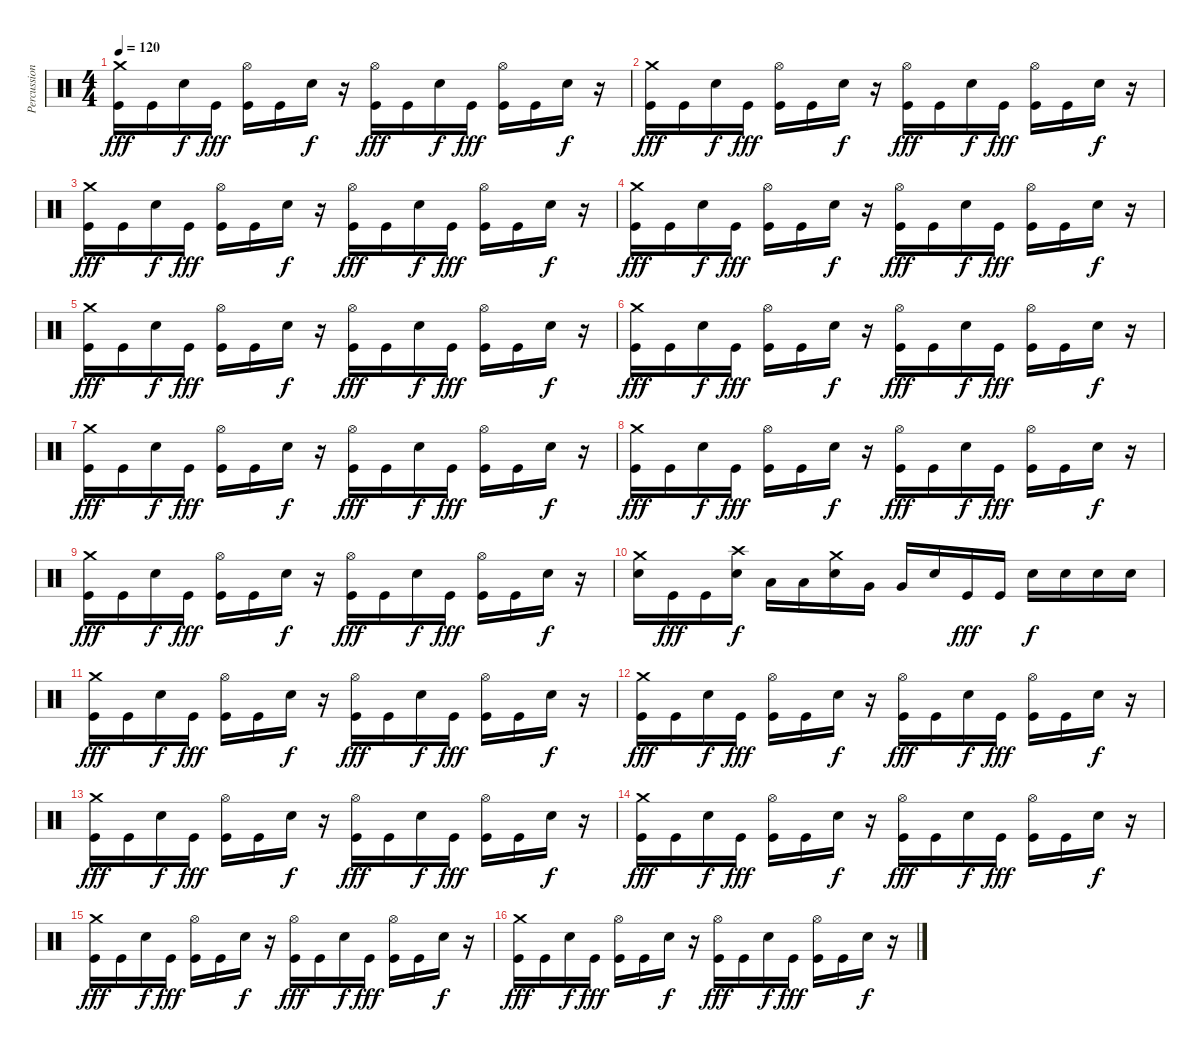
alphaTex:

\track ("Percussion" "Percussion") {instrument percussion}
\staff {score}
\articulation defaults
\ts (4 4)
\tempo 120
\clef neutral
\ks c
("Crash medium (hit)" "Kick (hit)").16{dy fff} "Kick (hit)".16 "Electric Snare (hit)".16{dy f} "Kick (hit)".16{dy fff} ("Hi-Hat (open)" "Kick (hit)").16 "Kick (hit)".16 "Electric Snare (hit)".16{dy f} r.16 ("Hi-Hat (open)" "Kick (hit)").16{dy fff} "Kick (hit)".16 "Electric Snare (hit)".16{dy f} "Kick (hit)".16{dy fff} ("Hi-Hat (open)" "Kick (hit)").16 "Kick (hit)".16 "Electric Snare (hit)".16{dy f} r.16 |
("Crash medium (hit)" "Kick (hit)").16{dy fff} "Kick (hit)".16 "Electric Snare (hit)".16{dy f} "Kick (hit)".16{dy fff} ("Hi-Hat (open)" "Kick (hit)").16 "Kick (hit)".16 "Electric Snare (hit)".16{dy f} r.16 ("Hi-Hat (open)" "Kick (hit)").16{dy fff} "Kick (hit)".16 "Electric Snare (hit)".16{dy f} "Kick (hit)".16{dy fff} ("Hi-Hat (open)" "Kick (hit)").16 "Kick (hit)".16 "Electric Snare (hit)".16{dy f} r.16 |
("Crash medium (hit)" "Kick (hit)").16{dy fff} "Kick (hit)".16 "Electric Snare (hit)".16{dy f} "Kick (hit)".16{dy fff} ("Hi-Hat (open)" "Kick (hit)").16 "Kick (hit)".16 "Electric Snare (hit)".16{dy f} r.16 ("Hi-Hat (open)" "Kick (hit)").16{dy fff} "Kick (hit)".16 "Electric Snare (hit)".16{dy f} "Kick (hit)".16{dy fff} ("Hi-Hat (open)" "Kick (hit)").16 "Kick (hit)".16 "Electric Snare (hit)".16{dy f} r.16 |
("Crash medium (hit)" "Kick (hit)").16{dy fff} "Kick (hit)".16 "Electric Snare (hit)".16{dy f} "Kick (hit)".16{dy fff} ("Hi-Hat (open)" "Kick (hit)").16 "Kick (hit)".16 "Electric Snare (hit)".16{dy f} r.16 ("Hi-Hat (open)" "Kick (hit)").16{dy fff} "Kick (hit)".16 "Electric Snare (hit)".16{dy f} "Kick (hit)".16{dy fff} ("Hi-Hat (open)" "Kick (hit)").16 "Kick (hit)".16 "Electric Snare (hit)".16{dy f} r.16 |
("Crash medium (hit)" "Kick (hit)").16{dy fff} "Kick (hit)".16 "Electric Snare (hit)".16{dy f} "Kick (hit)".16{dy fff} ("Hi-Hat (open)" "Kick (hit)").16 "Kick (hit)".16 "Electric Snare (hit)".16{dy f} r.16 ("Hi-Hat (open)" "Kick (hit)").16{dy fff} "Kick (hit)".16 "Electric Snare (hit)".16{dy f} "Kick (hit)".16{dy fff} ("Hi-Hat (open)" "Kick (hit)").16 "Kick (hit)".16 "Electric Snare (hit)".16{dy f} r.16 |
("Crash medium (hit)" "Kick (hit)").16{dy fff} "Kick (hit)".16 "Electric Snare (hit)".16{dy f} "Kick (hit)".16{dy fff} ("Hi-Hat (open)" "Kick (hit)").16 "Kick (hit)".16 "Electric Snare (hit)".16{dy f} r.16 ("Hi-Hat (open)" "Kick (hit)").16{dy fff} "Kick (hit)".16 "Electric Snare (hit)".16{dy f} "Kick (hit)".16{dy fff} ("Hi-Hat (open)" "Kick (hit)").16 "Kick (hit)".16 "Electric Snare (hit)".16{dy f} r.16 |
("Crash medium (hit)" "Kick (hit)").16{dy fff} "Kick (hit)".16 "Electric Snare (hit)".16{dy f} "Kick (hit)".16{dy fff} ("Hi-Hat (open)" "Kick (hit)").16 "Kick (hit)".16 "Electric Snare (hit)".16{dy f} r.16 ("Hi-Hat (open)" "Kick (hit)").16{dy fff} "Kick (hit)".16 "Electric Snare (hit)".16{dy f} "Kick (hit)".16{dy fff} ("Hi-Hat (open)" "Kick (hit)").16 "Kick (hit)".16 "Electric Snare (hit)".16{dy f} r.16 |
("Crash medium (hit)" "Kick (hit)").16{dy fff} "Kick (hit)".16 "Electric Snare (hit)".16{dy f} "Kick (hit)".16{dy fff} ("Hi-Hat (open)" "Kick (hit)").16 "Kick (hit)".16 "Electric Snare (hit)".16{dy f} r.16 ("Hi-Hat (open)" "Kick (hit)").16{dy fff} "Kick (hit)".16 "Electric Snare (hit)".16{dy f} "Kick (hit)".16{dy fff} ("Hi-Hat (open)" "Kick (hit)").16 "Kick (hit)".16 "Electric Snare (hit)".16{dy f} r.16 |
("Crash medium (hit)" "Kick (hit)").16{dy fff} "Kick (hit)".16 "Electric Snare (hit)".16{dy f} "Kick (hit)".16{dy fff} ("Hi-Hat (open)" "Kick (hit)").16 "Kick (hit)".16 "Electric Snare (hit)".16{dy f} r.16 ("Hi-Hat (open)" "Kick (hit)").16{dy fff} "Kick (hit)".16 "Electric Snare (hit)".16{dy f} "Kick (hit)".16{dy fff} ("Hi-Hat (open)" "Kick (hit)").16 "Kick (hit)".16 "Electric Snare (hit)".16{dy f} r.16 |
("Crash medium (hit)" "Electric Snare (hit)").16 "Kick (hit)".16{dy fff} "Kick (hit)".16 ("Crash high (hit)" "Electric Snare (hit)").16{dy f} "Low Tom (hit)".16 "Low Tom (hit)".16 ("Crash medium (hit)" "Electric Snare (hit)").16 "Very Low Tom (hit)".16 "Very Low Tom (hit)".16 "Electric Snare (hit)".16 "Kick (hit)".16{dy fff} "Kick (hit)".16 "Electric Snare (hit)".16{dy f} "Electric Snare (hit)".16 "Electric Snare (hit)".16 "Electric Snare (hit)".16 |
("Crash medium (hit)" "Kick (hit)").16{dy fff} "Kick (hit)".16 "Electric Snare (hit)".16{dy f} "Kick (hit)".16{dy fff} ("Hi-Hat (open)" "Kick (hit)").16 "Kick (hit)".16 "Electric Snare (hit)".16{dy f} r.16 ("Hi-Hat (open)" "Kick (hit)").16{dy fff} "Kick (hit)".16 "Electric Snare (hit)".16{dy f} "Kick (hit)".16{dy fff} ("Hi-Hat (open)" "Kick (hit)").16 "Kick (hit)".16 "Electric Snare (hit)".16{dy f} r.16 |
("Crash medium (hit)" "Kick (hit)").16{dy fff} "Kick (hit)".16 "Electric Snare (hit)".16{dy f} "Kick (hit)".16{dy fff} ("Hi-Hat (open)" "Kick (hit)").16 "Kick (hit)".16 "Electric Snare (hit)".16{dy f} r.16 ("Hi-Hat (open)" "Kick (hit)").16{dy fff} "Kick (hit)".16 "Electric Snare (hit)".16{dy f} "Kick (hit)".16{dy fff} ("Hi-Hat (open)" "Kick (hit)").16 "Kick (hit)".16 "Electric Snare (hit)".16{dy f} r.16 |
("Crash medium (hit)" "Kick (hit)").16{dy fff} "Kick (hit)".16 "Electric Snare (hit)".16{dy f} "Kick (hit)".16{dy fff} ("Hi-Hat (open)" "Kick (hit)").16 "Kick (hit)".16 "Electric Snare (hit)".16{dy f} r.16 ("Hi-Hat (open)" "Kick (hit)").16{dy fff} "Kick (hit)".16 "Electric Snare (hit)".16{dy f} "Kick (hit)".16{dy fff} ("Hi-Hat (open)" "Kick (hit)").16 "Kick (hit)".16 "Electric Snare (hit)".16{dy f} r.16 |
("Crash medium (hit)" "Kick (hit)").16{dy fff} "Kick (hit)".16 "Electric Snare (hit)".16{dy f} "Kick (hit)".16{dy fff} ("Hi-Hat (open)" "Kick (hit)").16 "Kick (hit)".16 "Electric Snare (hit)".16{dy f} r.16 ("Hi-Hat (open)" "Kick (hit)").16{dy fff} "Kick (hit)".16 "Electric Snare (hit)".16{dy f} "Kick (hit)".16{dy fff} ("Hi-Hat (open)" "Kick (hit)").16 "Kick (hit)".16 "Electric Snare (hit)".16{dy f} r.16 |
("Crash medium (hit)" "Kick (hit)").16{dy fff} "Kick (hit)".16 "Electric Snare (hit)".16{dy f} "Kick (hit)".16{dy fff} ("Hi-Hat (open)" "Kick (hit)").16 "Kick (hit)".16 "Electric Snare (hit)".16{dy f} r.16 ("Hi-Hat (open)" "Kick (hit)").16{dy fff} "Kick (hit)".16 "Electric Snare (hit)".16{dy f} "Kick (hit)".16{dy fff} ("Hi-Hat (open)" "Kick (hit)").16 "Kick (hit)".16 "Electric Snare (hit)".16{dy f} r.16 |
("Crash medium (hit)" "Kick (hit)").16{dy fff} "Kick (hit)".16 "Electric Snare (hit)".16{dy f} "Kick (hit)".16{dy fff} ("Hi-Hat (open)" "Kick (hit)").16 "Kick (hit)".16 "Electric Snare (hit)".16{dy f} r.16 ("Hi-Hat (open)" "Kick (hit)").16{dy fff} "Kick (hit)".16 "Electric Snare (hit)".16{dy f} "Kick (hit)".16{dy fff} ("Hi-Hat (open)" "Kick (hit)").16 "Kick (hit)".16 "Electric Snare (hit)".16{dy f} r.16
